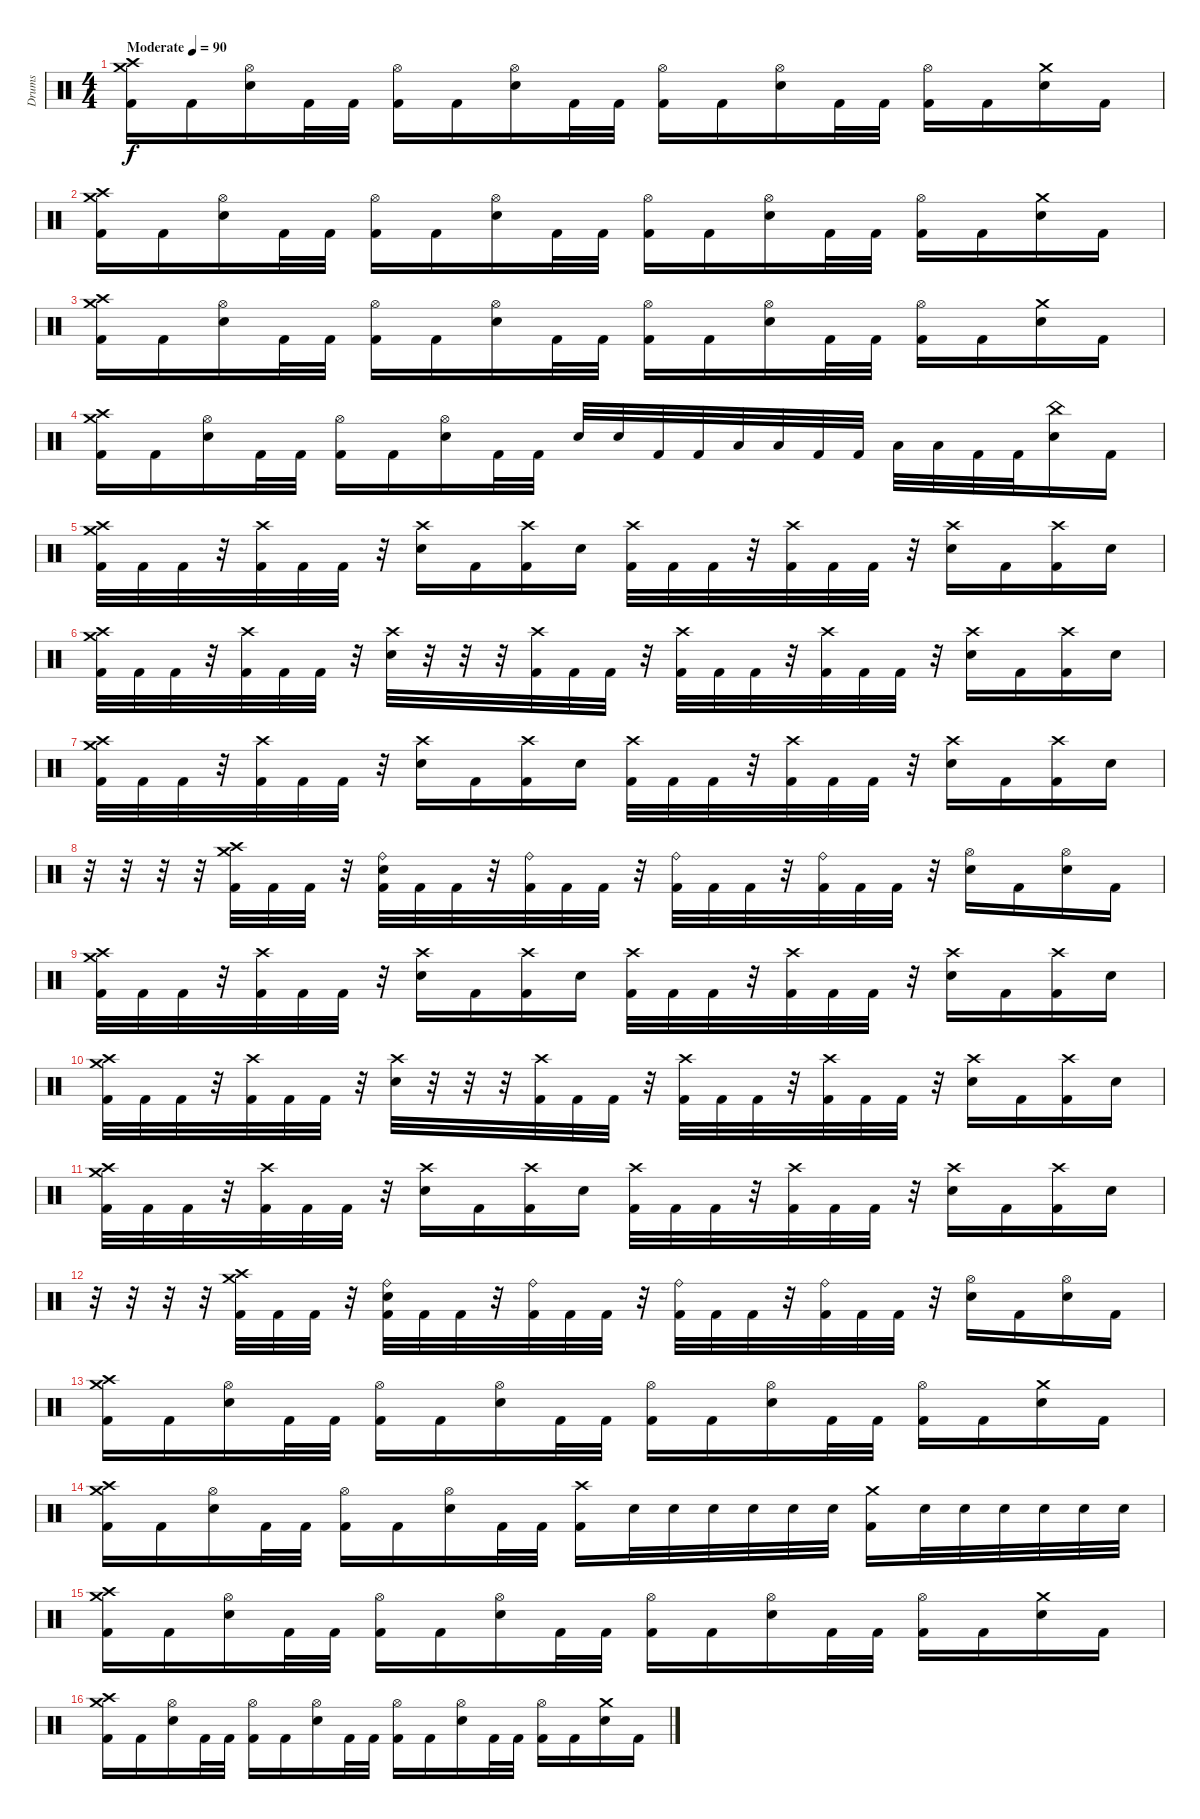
\track ("Drums" "Drums") {instrument percussion}
\staff {score}
\articulation defaults
\ts (4 4)
\tempo (90 "Moderate")
\clef neutral
\ks c
("Crash medium (hit)" "Crash high (hit)" "Kick (hit) 2").16{dy f} "Kick (hit) 2".16 ("Hi-Hat (open)" "Electric Snare (hit)").16 "Kick (hit) 2".32 "Kick (hit) 2".32 ("Hi-Hat (open)" "Kick (hit) 2").16 "Kick (hit) 2".16 ("Hi-Hat (open)" "Electric Snare (hit)").16 "Kick (hit) 2".32 "Kick (hit) 2".32 ("Hi-Hat (open)" "Kick (hit) 2").16 "Kick (hit) 2".16 ("Hi-Hat (open)" "Electric Snare (hit)").16 "Kick (hit) 2".32 "Kick (hit) 2".32 ("Hi-Hat (open)" "Kick (hit) 2").16 "Kick (hit) 2".16 ("Crash medium (hit)" "Electric Snare (hit)").16 "Kick (hit) 2".16 |
("Crash medium (hit)" "Crash high (hit)" "Kick (hit) 2").16 "Kick (hit) 2".16 ("Hi-Hat (open)" "Electric Snare (hit)").16 "Kick (hit) 2".32 "Kick (hit) 2".32 ("Hi-Hat (open)" "Kick (hit) 2").16 "Kick (hit) 2".16 ("Hi-Hat (open)" "Electric Snare (hit)").16 "Kick (hit) 2".32 "Kick (hit) 2".32 ("Hi-Hat (open)" "Kick (hit) 2").16 "Kick (hit) 2".16 ("Hi-Hat (open)" "Electric Snare (hit)").16 "Kick (hit) 2".32 "Kick (hit) 2".32 ("Hi-Hat (open)" "Kick (hit) 2").16 "Kick (hit) 2".16 ("Crash medium (hit)" "Electric Snare (hit)").16 "Kick (hit) 2".16 |
("Crash medium (hit)" "Crash high (hit)" "Kick (hit) 2").16 "Kick (hit) 2".16 ("Hi-Hat (open)" "Electric Snare (hit)").16 "Kick (hit) 2".32 "Kick (hit) 2".32 ("Hi-Hat (open)" "Kick (hit) 2").16 "Kick (hit) 2".16 ("Hi-Hat (open)" "Electric Snare (hit)").16 "Kick (hit) 2".32 "Kick (hit) 2".32 ("Hi-Hat (open)" "Kick (hit) 2").16 "Kick (hit) 2".16 ("Hi-Hat (open)" "Electric Snare (hit)").16 "Kick (hit) 2".32 "Kick (hit) 2".32 ("Hi-Hat (open)" "Kick (hit) 2").16 "Kick (hit) 2".16 ("Crash medium (hit)" "Electric Snare (hit)").16 "Kick (hit) 2".16 |
("Crash medium (hit)" "Crash high (hit)" "Kick (hit) 2").16 "Kick (hit) 2".16 ("Hi-Hat (open)" "Electric Snare (hit)").16 "Kick (hit) 2".32 "Kick (hit) 2".32 ("Hi-Hat (open)" "Kick (hit) 2").16 "Kick (hit) 2".16 ("Hi-Hat (open)" "Electric Snare (hit)").16 "Kick (hit) 2".32 "Kick (hit) 2".32 "Electric Snare (hit)".32 "Electric Snare (hit)".32 "Kick (hit) 2".32 "Kick (hit) 2".32 "Low Tom (hit)".32 "Low Tom (hit)".32 "Kick (hit) 2".32 "Kick (hit) 2".32 "Low Floor Tom (hit)".32 "Low Floor Tom (hit)".32 "Kick (hit) 2".32 "Kick (hit) 2".32 ("China (hit)" "Electric Snare (hit)").16 "Kick (hit) 2".16 |
("Crash medium (hit)" "Crash high (hit)" "Kick (hit) 2").32 "Kick (hit) 2".32 "Kick (hit) 2".32 r.32 ("Crash high (hit)" "Kick (hit) 2").32 "Kick (hit) 2".32 "Kick (hit) 2".32 r.32 ("Crash high (hit)" "Electric Snare (hit)").16 "Kick (hit) 2".16 ("Crash high (hit)" "Kick (hit) 2").16 "Electric Snare (hit)".16 ("Crash high (hit)" "Kick (hit) 2").32 "Kick (hit) 2".32 "Kick (hit) 2".32 r.32 ("Crash high (hit)" "Kick (hit) 2").32 "Kick (hit) 2".32 "Kick (hit) 2".32 r.32 ("Crash high (hit)" "Electric Snare (hit)").16 "Kick (hit) 2".16 ("Crash high (hit)" "Kick (hit) 2").16 "Electric Snare (hit)".16 |
("Crash medium (hit)" "Crash high (hit)" "Kick (hit) 2").32 "Kick (hit) 2".32 "Kick (hit) 2".32 r.32 ("Crash high (hit)" "Kick (hit) 2").32 "Kick (hit) 2".32 "Kick (hit) 2".32 r.32 ("Crash high (hit)" "Electric Snare (hit)").32 r.32 r.32 r.32 ("Crash high (hit)" "Kick (hit) 2").32 "Kick (hit) 2".32 "Kick (hit) 2".32 r.32 ("Crash high (hit)" "Kick (hit) 2").32 "Kick (hit) 2".32 "Kick (hit) 2".32 r.32 ("Crash high (hit)" "Kick (hit) 2").32 "Kick (hit) 2".32 "Kick (hit) 2".32 r.32 ("Crash high (hit)" "Electric Snare (hit)").16 "Kick (hit) 2".16 ("Crash high (hit)" "Kick (hit) 2").16 "Electric Snare (hit)".16 |
("Crash medium (hit)" "Crash high (hit)" "Kick (hit) 2").32 "Kick (hit) 2".32 "Kick (hit) 2".32 r.32 ("Crash high (hit)" "Kick (hit) 2").32 "Kick (hit) 2".32 "Kick (hit) 2".32 r.32 ("Crash high (hit)" "Electric Snare (hit)").16 "Kick (hit) 2".16 ("Crash high (hit)" "Kick (hit) 2").16 "Electric Snare (hit)".16 ("Crash high (hit)" "Kick (hit) 2").32 "Kick (hit) 2".32 "Kick (hit) 2".32 r.32 ("Crash high (hit)" "Kick (hit) 2").32 "Kick (hit) 2".32 "Kick (hit) 2".32 r.32 ("Crash high (hit)" "Electric Snare (hit)").16 "Kick (hit) 2".16 ("Crash high (hit)" "Kick (hit) 2").16 "Electric Snare (hit)".16 |
r.32 r.32 r.32 r.32 ("Crash medium (hit)" "Crash high (hit)" "Kick (hit) 2").32 "Kick (hit) 2".32 "Kick (hit) 2".32 r.32 ("Ride (bell)" "Electric Snare (hit)" "Kick (hit) 2").32 "Kick (hit) 2".32 "Kick (hit) 2".32 r.32 ("Ride (bell)" "Kick (hit) 2").32 "Kick (hit) 2".32 "Kick (hit) 2".32 r.32 ("Ride (bell)" "Kick (hit) 2").32 "Kick (hit) 2".32 "Kick (hit) 2".32 r.32 ("Ride (bell)" "Kick (hit) 2").32 "Kick (hit) 2".32 "Kick (hit) 2".32 r.32 ("Hi-Hat (open)" "Electric Snare (hit)").16 "Kick (hit) 2".16 ("Hi-Hat (open)" "Electric Snare (hit)").16 "Kick (hit) 2".16 |
("Crash medium (hit)" "Crash high (hit)" "Kick (hit) 2").32 "Kick (hit) 2".32 "Kick (hit) 2".32 r.32 ("Crash high (hit)" "Kick (hit) 2").32 "Kick (hit) 2".32 "Kick (hit) 2".32 r.32 ("Crash high (hit)" "Electric Snare (hit)").16 "Kick (hit) 2".16 ("Crash high (hit)" "Kick (hit) 2").16 "Electric Snare (hit)".16 ("Crash high (hit)" "Kick (hit) 2").32 "Kick (hit) 2".32 "Kick (hit) 2".32 r.32 ("Crash high (hit)" "Kick (hit) 2").32 "Kick (hit) 2".32 "Kick (hit) 2".32 r.32 ("Crash high (hit)" "Electric Snare (hit)").16 "Kick (hit) 2".16 ("Crash high (hit)" "Kick (hit) 2").16 "Electric Snare (hit)".16 |
("Crash medium (hit)" "Crash high (hit)" "Kick (hit) 2").32 "Kick (hit) 2".32 "Kick (hit) 2".32 r.32 ("Crash high (hit)" "Kick (hit) 2").32 "Kick (hit) 2".32 "Kick (hit) 2".32 r.32 ("Crash high (hit)" "Electric Snare (hit)").32 r.32 r.32 r.32 ("Crash high (hit)" "Kick (hit) 2").32 "Kick (hit) 2".32 "Kick (hit) 2".32 r.32 ("Crash high (hit)" "Kick (hit) 2").32 "Kick (hit) 2".32 "Kick (hit) 2".32 r.32 ("Crash high (hit)" "Kick (hit) 2").32 "Kick (hit) 2".32 "Kick (hit) 2".32 r.32 ("Crash high (hit)" "Electric Snare (hit)").16 "Kick (hit) 2".16 ("Crash high (hit)" "Kick (hit) 2").16 "Electric Snare (hit)".16 |
("Crash medium (hit)" "Crash high (hit)" "Kick (hit) 2").32 "Kick (hit) 2".32 "Kick (hit) 2".32 r.32 ("Crash high (hit)" "Kick (hit) 2").32 "Kick (hit) 2".32 "Kick (hit) 2".32 r.32 ("Crash high (hit)" "Electric Snare (hit)").16 "Kick (hit) 2".16 ("Crash high (hit)" "Kick (hit) 2").16 "Electric Snare (hit)".16 ("Crash high (hit)" "Kick (hit) 2").32 "Kick (hit) 2".32 "Kick (hit) 2".32 r.32 ("Crash high (hit)" "Kick (hit) 2").32 "Kick (hit) 2".32 "Kick (hit) 2".32 r.32 ("Crash high (hit)" "Electric Snare (hit)").16 "Kick (hit) 2".16 ("Crash high (hit)" "Kick (hit) 2").16 "Electric Snare (hit)".16 |
r.32 r.32 r.32 r.32 ("Crash medium (hit)" "Crash high (hit)" "Kick (hit) 2").32 "Kick (hit) 2".32 "Kick (hit) 2".32 r.32 ("Ride (bell)" "Electric Snare (hit)" "Kick (hit) 2").32 "Kick (hit) 2".32 "Kick (hit) 2".32 r.32 ("Ride (bell)" "Kick (hit) 2").32 "Kick (hit) 2".32 "Kick (hit) 2".32 r.32 ("Ride (bell)" "Kick (hit) 2").32 "Kick (hit) 2".32 "Kick (hit) 2".32 r.32 ("Ride (bell)" "Kick (hit) 2").32 "Kick (hit) 2".32 "Kick (hit) 2".32 r.32 ("Hi-Hat (open)" "Electric Snare (hit)").16 "Kick (hit) 2".16 ("Hi-Hat (open)" "Electric Snare (hit)").16 "Kick (hit) 2".16 |
("Crash medium (hit)" "Crash high (hit)" "Kick (hit) 2").16 "Kick (hit) 2".16 ("Hi-Hat (open)" "Electric Snare (hit)").16 "Kick (hit) 2".32 "Kick (hit) 2".32 ("Hi-Hat (open)" "Kick (hit) 2").16 "Kick (hit) 2".16 ("Hi-Hat (open)" "Electric Snare (hit)").16 "Kick (hit) 2".32 "Kick (hit) 2".32 ("Hi-Hat (open)" "Kick (hit) 2").16 "Kick (hit) 2".16 ("Hi-Hat (open)" "Electric Snare (hit)").16 "Kick (hit) 2".32 "Kick (hit) 2".32 ("Hi-Hat (open)" "Kick (hit) 2").16 "Kick (hit) 2".16 ("Crash medium (hit)" "Electric Snare (hit)").16 "Kick (hit) 2".16 |
("Crash medium (hit)" "Crash high (hit)" "Kick (hit) 2").16 "Kick (hit) 2".16 ("Hi-Hat (open)" "Electric Snare (hit)").16 "Kick (hit) 2".32 "Kick (hit) 2".32 ("Hi-Hat (open)" "Kick (hit) 2").16 "Kick (hit) 2".16 ("Hi-Hat (open)" "Electric Snare (hit)").16 "Kick (hit) 2".32 "Kick (hit) 2".32 ("Crash high (hit)" "Kick (hit) 2").16 "Electric Snare (hit)".32 "Electric Snare (hit)".32 "Electric Snare (hit)".32 "Electric Snare (hit)".32 "Electric Snare (hit)".32 "Electric Snare (hit)".32 ("Crash medium (hit)" "Kick (hit) 2").16 "Electric Snare (hit)".32 "Electric Snare (hit)".32 "Electric Snare (hit)".32 "Electric Snare (hit)".32 "Electric Snare (hit)".32 "Electric Snare (hit)".32 |
("Crash medium (hit)" "Crash high (hit)" "Kick (hit) 2").16 "Kick (hit) 2".16 ("Hi-Hat (open)" "Electric Snare (hit)").16 "Kick (hit) 2".32 "Kick (hit) 2".32 ("Hi-Hat (open)" "Kick (hit) 2").16 "Kick (hit) 2".16 ("Hi-Hat (open)" "Electric Snare (hit)").16 "Kick (hit) 2".32 "Kick (hit) 2".32 ("Hi-Hat (open)" "Kick (hit) 2").16 "Kick (hit) 2".16 ("Hi-Hat (open)" "Electric Snare (hit)").16 "Kick (hit) 2".32 "Kick (hit) 2".32 ("Hi-Hat (open)" "Kick (hit) 2").16 "Kick (hit) 2".16 ("Crash medium (hit)" "Electric Snare (hit)").16 "Kick (hit) 2".16 |
("Crash medium (hit)" "Crash high (hit)" "Kick (hit) 2").16 "Kick (hit) 2".16 ("Hi-Hat (open)" "Electric Snare (hit)").16 "Kick (hit) 2".32 "Kick (hit) 2".32 ("Hi-Hat (open)" "Kick (hit) 2").16 "Kick (hit) 2".16 ("Hi-Hat (open)" "Electric Snare (hit)").16 "Kick (hit) 2".32 "Kick (hit) 2".32 ("Hi-Hat (open)" "Kick (hit) 2").16 "Kick (hit) 2".16 ("Hi-Hat (open)" "Electric Snare (hit)").16 "Kick (hit) 2".32 "Kick (hit) 2".32 ("Hi-Hat (open)" "Kick (hit) 2").16 "Kick (hit) 2".16 ("Crash medium (hit)" "Electric Snare (hit)").16 "Kick (hit) 2".16
